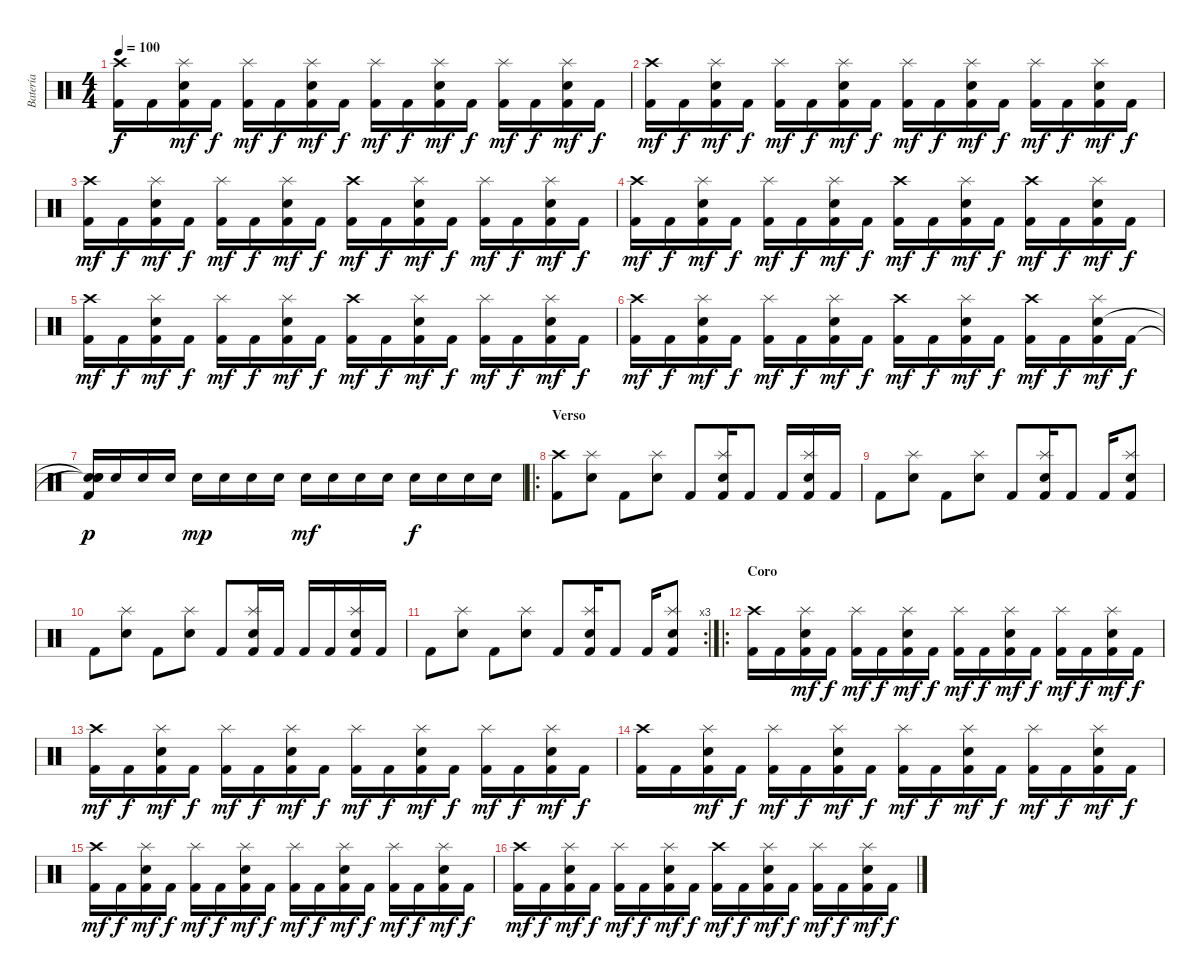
\track ("Batería" "Batería") {instrument percussion}
\staff {score}
\articulation defaults
\ts (4 4)
\tempo 100
\clef neutral
\ks c
("Crash high (hit)" "Kick (hit) 2").16{dy f} "Kick (hit) 2".16 ("Splash (hit)" "Snare (hit) 2" "Kick (hit) 2").16{dy mf} "Kick (hit) 2".16{dy f} ("Splash (hit)" "Kick (hit) 2").16{dy mf} "Kick (hit) 2".16{dy f} ("Splash (hit)" "Snare (hit) 2" "Kick (hit) 2").16{dy mf} "Kick (hit) 2".16{dy f} ("Splash (hit)" "Kick (hit) 2").16{dy mf} "Kick (hit) 2".16{dy f} ("Splash (hit)" "Snare (hit) 2" "Kick (hit) 2").16{dy mf} "Kick (hit) 2".16{dy f} ("Splash (hit)" "Kick (hit) 2").16{dy mf} "Kick (hit) 2".16{dy f} ("Splash (hit)" "Snare (hit) 2" "Kick (hit) 2").16{dy mf} "Kick (hit) 2".16{dy f} |
("Crash high (hit)" "Kick (hit) 2").16{dy mf} "Kick (hit) 2".16{dy f} ("Splash (hit)" "Snare (hit) 2" "Kick (hit) 2").16{dy mf} "Kick (hit) 2".16{dy f} ("Splash (hit)" "Kick (hit) 2").16{dy mf} "Kick (hit) 2".16{dy f} ("Splash (hit)" "Snare (hit) 2" "Kick (hit) 2").16{dy mf} "Kick (hit) 2".16{dy f} ("Splash (hit)" "Kick (hit) 2").16{dy mf} "Kick (hit) 2".16{dy f} ("Splash (hit)" "Snare (hit) 2" "Kick (hit) 2").16{dy mf} "Kick (hit) 2".16{dy f} ("Splash (hit)" "Kick (hit) 2").16{dy mf} "Kick (hit) 2".16{dy f} ("Splash (hit)" "Snare (hit) 2" "Kick (hit) 2").16{dy mf} "Kick (hit) 2".16{dy f} |
("Crash high (hit)" "Kick (hit) 2").16{dy mf} "Kick (hit) 2".16{dy f} ("Splash (hit)" "Snare (hit) 2" "Kick (hit) 2").16{dy mf} "Kick (hit) 2".16{dy f} ("Splash (hit)" "Kick (hit) 2").16{dy mf} "Kick (hit) 2".16{dy f} ("Splash (hit)" "Snare (hit) 2" "Kick (hit) 2").16{dy mf} "Kick (hit) 2".16{dy f} ("Crash high (hit)" "Kick (hit) 2").16{dy mf} "Kick (hit) 2".16{dy f} ("Splash (hit)" "Snare (hit) 2" "Kick (hit) 2").16{dy mf} "Kick (hit) 2".16{dy f} ("Splash (hit)" "Kick (hit) 2").16{dy mf} "Kick (hit) 2".16{dy f} ("Splash (hit)" "Snare (hit) 2" "Kick (hit) 2").16{dy mf} "Kick (hit) 2".16{dy f} |
("Crash high (hit)" "Kick (hit) 2").16{dy mf} "Kick (hit) 2".16{dy f} ("Splash (hit)" "Snare (hit) 2" "Kick (hit) 2").16{dy mf} "Kick (hit) 2".16{dy f} ("Splash (hit)" "Kick (hit) 2").16{dy mf} "Kick (hit) 2".16{dy f} ("Splash (hit)" "Snare (hit) 2" "Kick (hit) 2").16{dy mf} "Kick (hit) 2".16{dy f} ("Crash high (hit)" "Kick (hit) 2").16{dy mf} "Kick (hit) 2".16{dy f} ("Splash (hit)" "Snare (hit) 2" "Kick (hit) 2").16{dy mf} "Kick (hit) 2".16{dy f} ("Crash high (hit)" "Kick (hit) 2").16{dy mf} "Kick (hit) 2".16{dy f} ("Splash (hit)" "Snare (hit) 2" "Kick (hit) 2").16{dy mf} "Kick (hit) 2".16{dy f} |
("Crash high (hit)" "Kick (hit) 2").16{dy mf} "Kick (hit) 2".16{dy f} ("Splash (hit)" "Snare (hit) 2" "Kick (hit) 2").16{dy mf} "Kick (hit) 2".16{dy f} ("Splash (hit)" "Kick (hit) 2").16{dy mf} "Kick (hit) 2".16{dy f} ("Splash (hit)" "Snare (hit) 2" "Kick (hit) 2").16{dy mf} "Kick (hit) 2".16{dy f} ("Crash high (hit)" "Kick (hit) 2").16{dy mf} "Kick (hit) 2".16{dy f} ("Splash (hit)" "Snare (hit) 2" "Kick (hit) 2").16{dy mf} "Kick (hit) 2".16{dy f} ("Splash (hit)" "Kick (hit) 2").16{dy mf} "Kick (hit) 2".16{dy f} ("Splash (hit)" "Snare (hit) 2" "Kick (hit) 2").16{dy mf} "Kick (hit) 2".16{dy f} |
("Crash high (hit)" "Kick (hit) 2").16{dy mf} "Kick (hit) 2".16{dy f} ("Splash (hit)" "Snare (hit) 2" "Kick (hit) 2").16{dy mf} "Kick (hit) 2".16{dy f} ("Splash (hit)" "Kick (hit) 2").16{dy mf} "Kick (hit) 2".16{dy f} ("Splash (hit)" "Snare (hit) 2" "Kick (hit) 2").16{dy mf} "Kick (hit) 2".16{dy f} ("Crash high (hit)" "Kick (hit) 2").16{dy mf} "Kick (hit) 2".16{dy f} ("Splash (hit)" "Snare (hit) 2" "Kick (hit) 2").16{dy mf} "Kick (hit) 2".16{dy f} ("Crash high (hit)" "Kick (hit) 2").16{dy mf} "Kick (hit) 2".16{dy f} ("Splash (hit)" "Snare (hit) 2" "Kick (hit) 2").16{dy mf} "Kick (hit) 2".16{dy f} |
("Snare (hit)"{t} "Snare (hit)"{t} "Snare (hit) 2" "Kick (hit) 2").16{dy p} "Snare (hit) 2".16 "Snare (hit) 2".16 "Snare (hit) 2".16 "Snare (hit) 2".16{dy mp} "Snare (hit) 2".16 "Snare (hit) 2".16 "Snare (hit) 2".16 "Snare (hit) 2".16{dy mf} "Snare (hit) 2".16 "Snare (hit) 2".16 "Snare (hit) 2".16 "Snare (hit) 2".16{dy f} "Snare (hit) 2".16 "Snare (hit) 2".16 "Snare (hit) 2".16 |
\ro
\section ("" "Verso")
("Crash high (hit)" "Kick (hit) 2").8 ("Splash (hit)" "Snare (hit) 2").8 "Kick (hit) 2".8 ("Splash (hit)" "Snare (hit) 2").8 "Kick (hit) 2".8 ("Splash (hit)" "Snare (hit) 2" "Kick (hit) 2").16 "Kick (hit) 2".8 "Kick (hit) 2".16 ("Splash (hit)" "Snare (hit) 2" "Kick (hit) 2").16 "Kick (hit) 2".16 |
"Kick (hit) 2".8 ("Splash (hit)" "Snare (hit) 2").8 "Kick (hit) 2".8 ("Splash (hit)" "Snare (hit) 2").8 "Kick (hit) 2".8 ("Splash (hit)" "Snare (hit) 2" "Kick (hit) 2").16 "Kick (hit) 2".8 "Kick (hit) 2".16 ("Splash (hit)" "Snare (hit) 2" "Kick (hit) 2").8 |
"Kick (hit) 2".8 ("Splash (hit)" "Snare (hit) 2").8 "Kick (hit) 2".8 ("Splash (hit)" "Snare (hit) 2").8 "Kick (hit) 2".8 ("Splash (hit)" "Snare (hit) 2" "Kick (hit) 2").16 "Kick (hit) 2".16 "Kick (hit) 2".16 "Kick (hit) 2".16 ("Splash (hit)" "Snare (hit) 2" "Kick (hit) 2").16 "Kick (hit) 2".16 |
\rc 3 "Kick (hit) 2".8
("Splash (hit)" "Snare (hit) 2").8 "Kick (hit) 2".8 ("Splash (hit)" "Snare (hit) 2").8 "Kick (hit) 2".8 ("Splash (hit)" "Snare (hit) 2" "Kick (hit) 2").16 "Kick (hit) 2".8 "Kick (hit) 2".16 ("Splash (hit)" "Snare (hit) 2" "Kick (hit) 2").8 |
\ro
\section ("" "Coro")
("Crash high (hit)" "Kick (hit) 2").16 "Kick (hit) 2".16 ("Splash (hit)" "Snare (hit) 2" "Kick (hit) 2").16{dy mf} "Kick (hit) 2".16{dy f} ("Splash (hit)" "Kick (hit) 2").16{dy mf} "Kick (hit) 2".16{dy f} ("Splash (hit)" "Snare (hit) 2" "Kick (hit) 2").16{dy mf} "Kick (hit) 2".16{dy f} ("Splash (hit)" "Kick (hit) 2").16{dy mf} "Kick (hit) 2".16{dy f} ("Splash (hit)" "Snare (hit) 2" "Kick (hit) 2").16{dy mf} "Kick (hit) 2".16{dy f} ("Splash (hit)" "Kick (hit) 2").16{dy mf} "Kick (hit) 2".16{dy f} ("Splash (hit)" "Snare (hit) 2" "Kick (hit) 2").16{dy mf} "Kick (hit) 2".16{dy f} |
("Crash high (hit)" "Kick (hit) 2").16{dy mf} "Kick (hit) 2".16{dy f} ("Splash (hit)" "Snare (hit) 2" "Kick (hit) 2").16{dy mf} "Kick (hit) 2".16{dy f} ("Splash (hit)" "Kick (hit) 2").16{dy mf} "Kick (hit) 2".16{dy f} ("Splash (hit)" "Snare (hit) 2" "Kick (hit) 2").16{dy mf} "Kick (hit) 2".16{dy f} ("Splash (hit)" "Kick (hit) 2").16{dy mf} "Kick (hit) 2".16{dy f} ("Splash (hit)" "Snare (hit) 2" "Kick (hit) 2").16{dy mf} "Kick (hit) 2".16{dy f} ("Splash (hit)" "Kick (hit) 2").16{dy mf} "Kick (hit) 2".16{dy f} ("Splash (hit)" "Snare (hit) 2" "Kick (hit) 2").16{dy mf} "Kick (hit) 2".16{dy f} |
("Crash high (hit)" "Kick (hit) 2").16 "Kick (hit) 2".16 ("Splash (hit)" "Snare (hit) 2" "Kick (hit) 2").16{dy mf} "Kick (hit) 2".16{dy f} ("Splash (hit)" "Kick (hit) 2").16{dy mf} "Kick (hit) 2".16{dy f} ("Splash (hit)" "Snare (hit) 2" "Kick (hit) 2").16{dy mf} "Kick (hit) 2".16{dy f} ("Splash (hit)" "Kick (hit) 2").16{dy mf} "Kick (hit) 2".16{dy f} ("Splash (hit)" "Snare (hit) 2" "Kick (hit) 2").16{dy mf} "Kick (hit) 2".16{dy f} ("Splash (hit)" "Kick (hit) 2").16{dy mf} "Kick (hit) 2".16{dy f} ("Splash (hit)" "Snare (hit) 2" "Kick (hit) 2").16{dy mf} "Kick (hit) 2".16{dy f} |
("Crash high (hit)" "Kick (hit) 2").16{dy mf} "Kick (hit) 2".16{dy f} ("Splash (hit)" "Snare (hit) 2" "Kick (hit) 2").16{dy mf} "Kick (hit) 2".16{dy f} ("Splash (hit)" "Kick (hit) 2").16{dy mf} "Kick (hit) 2".16{dy f} ("Splash (hit)" "Snare (hit) 2" "Kick (hit) 2").16{dy mf} "Kick (hit) 2".16{dy f} ("Splash (hit)" "Kick (hit) 2").16{dy mf} "Kick (hit) 2".16{dy f} ("Splash (hit)" "Snare (hit) 2" "Kick (hit) 2").16{dy mf} "Kick (hit) 2".16{dy f} ("Splash (hit)" "Kick (hit) 2").16{dy mf} "Kick (hit) 2".16{dy f} ("Splash (hit)" "Snare (hit) 2" "Kick (hit) 2").16{dy mf} "Kick (hit) 2".16{dy f} |
("Crash high (hit)" "Kick (hit) 2").16{dy mf} "Kick (hit) 2".16{dy f} ("Splash (hit)" "Snare (hit) 2" "Kick (hit) 2").16{dy mf} "Kick (hit) 2".16{dy f} ("Splash (hit)" "Kick (hit) 2").16{dy mf} "Kick (hit) 2".16{dy f} ("Splash (hit)" "Snare (hit) 2" "Kick (hit) 2").16{dy mf} "Kick (hit) 2".16{dy f} ("Crash high (hit)" "Kick (hit) 2").16{dy mf} "Kick (hit) 2".16{dy f} ("Splash (hit)" "Snare (hit) 2" "Kick (hit) 2").16{dy mf} "Kick (hit) 2".16{dy f} ("Splash (hit)" "Kick (hit) 2").16{dy mf} "Kick (hit) 2".16{dy f} ("Splash (hit)" "Snare (hit) 2" "Kick (hit) 2").16{dy mf} "Kick (hit) 2".16{dy f}
